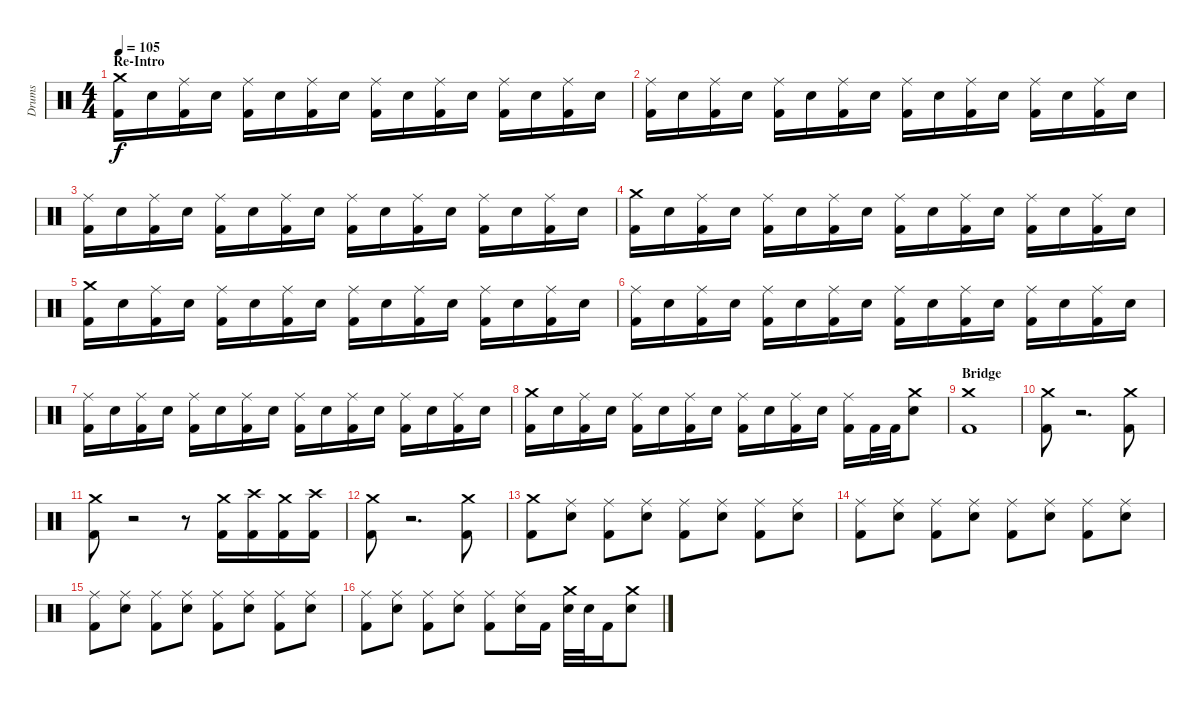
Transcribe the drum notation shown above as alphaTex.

\track ("Drums" "Drums") {instrument percussion}
\staff {score}
\articulation defaults
\ts (4 4)
\section ("" "Re-Intro")
\tempo 105
\clef neutral
\ks c
("Crash medium (hit)" "Kick (hit) 2").16{dy f} "Electric Snare (hit)".16 ("Ride (middle)" "Kick (hit) 2").16 "Electric Snare (hit)".16 ("Ride (middle)" "Kick (hit) 2").16 "Electric Snare (hit)".16 ("Ride (middle)" "Kick (hit) 2").16 "Electric Snare (hit)".16 ("Ride (middle)" "Kick (hit) 2").16 "Electric Snare (hit)".16 ("Ride (middle)" "Kick (hit) 2").16 "Electric Snare (hit)".16 ("Ride (middle)" "Kick (hit) 2").16 "Electric Snare (hit)".16 ("Ride (middle)" "Kick (hit) 2").16 "Electric Snare (hit)".16 |
("Ride (middle)" "Kick (hit) 2").16 "Electric Snare (hit)".16 ("Ride (middle)" "Kick (hit) 2").16 "Electric Snare (hit)".16 ("Ride (middle)" "Kick (hit) 2").16 "Electric Snare (hit)".16 ("Ride (middle)" "Kick (hit) 2").16 "Electric Snare (hit)".16 ("Ride (middle)" "Kick (hit) 2").16 "Electric Snare (hit)".16 ("Ride (middle)" "Kick (hit) 2").16 "Electric Snare (hit)".16 ("Ride (middle)" "Kick (hit) 2").16 "Electric Snare (hit)".16 ("Ride (middle)" "Kick (hit) 2").16 "Electric Snare (hit)".16 |
("Ride (middle)" "Kick (hit) 2").16 "Electric Snare (hit)".16 ("Ride (middle)" "Kick (hit) 2").16 "Electric Snare (hit)".16 ("Ride (middle)" "Kick (hit) 2").16 "Electric Snare (hit)".16 ("Ride (middle)" "Kick (hit) 2").16 "Electric Snare (hit)".16 ("Ride (middle)" "Kick (hit) 2").16 "Electric Snare (hit)".16 ("Ride (middle)" "Kick (hit) 2").16 "Electric Snare (hit)".16 ("Ride (middle)" "Kick (hit) 2").16 "Electric Snare (hit)".16 ("Ride (middle)" "Kick (hit) 2").16 "Electric Snare (hit)".16 |
("Crash medium (hit)" "Kick (hit) 2").16 "Electric Snare (hit)".16 ("Ride (middle)" "Kick (hit) 2").16 "Electric Snare (hit)".16 ("Ride (middle)" "Kick (hit) 2").16 "Electric Snare (hit)".16 ("Ride (middle)" "Kick (hit) 2").16 "Electric Snare (hit)".16 ("Ride (middle)" "Kick (hit) 2").16 "Electric Snare (hit)".16 ("Ride (middle)" "Kick (hit) 2").16 "Electric Snare (hit)".16 ("Ride (middle)" "Kick (hit) 2").16 "Electric Snare (hit)".16 ("Ride (middle)" "Kick (hit) 2").16 "Electric Snare (hit)".16 |
("Crash medium (hit)" "Kick (hit) 2").16 "Electric Snare (hit)".16 ("Ride (middle)" "Kick (hit) 2").16 "Electric Snare (hit)".16 ("Ride (middle)" "Kick (hit) 2").16 "Electric Snare (hit)".16 ("Ride (middle)" "Kick (hit) 2").16 "Electric Snare (hit)".16 ("Ride (middle)" "Kick (hit) 2").16 "Electric Snare (hit)".16 ("Ride (middle)" "Kick (hit) 2").16 "Electric Snare (hit)".16 ("Ride (middle)" "Kick (hit) 2").16 "Electric Snare (hit)".16 ("Ride (middle)" "Kick (hit) 2").16 "Electric Snare (hit)".16 |
("Ride (middle)" "Kick (hit) 2").16 "Electric Snare (hit)".16 ("Ride (middle)" "Kick (hit) 2").16 "Electric Snare (hit)".16 ("Ride (middle)" "Kick (hit) 2").16 "Electric Snare (hit)".16 ("Ride (middle)" "Kick (hit) 2").16 "Electric Snare (hit)".16 ("Ride (middle)" "Kick (hit) 2").16 "Electric Snare (hit)".16 ("Ride (middle)" "Kick (hit) 2").16 "Electric Snare (hit)".16 ("Ride (middle)" "Kick (hit) 2").16 "Electric Snare (hit)".16 ("Ride (middle)" "Kick (hit) 2").16 "Electric Snare (hit)".16 |
("Ride (middle)" "Kick (hit) 2").16 "Electric Snare (hit)".16 ("Ride (middle)" "Kick (hit) 2").16 "Electric Snare (hit)".16 ("Ride (middle)" "Kick (hit) 2").16 "Electric Snare (hit)".16 ("Ride (middle)" "Kick (hit) 2").16 "Electric Snare (hit)".16 ("Ride (middle)" "Kick (hit) 2").16 "Electric Snare (hit)".16 ("Ride (middle)" "Kick (hit) 2").16 "Electric Snare (hit)".16 ("Ride (middle)" "Kick (hit) 2").16 "Electric Snare (hit)".16 ("Ride (middle)" "Kick (hit) 2").16 "Electric Snare (hit)".16 |
("Crash medium (hit)" "Kick (hit) 2").16 "Electric Snare (hit)".16 ("Ride (middle)" "Kick (hit) 2").16 "Electric Snare (hit)".16 ("Ride (middle)" "Kick (hit) 2").16 "Electric Snare (hit)".16 ("Ride (middle)" "Kick (hit) 2").16 "Electric Snare (hit)".16 ("Ride (middle)" "Kick (hit) 2").16 "Electric Snare (hit)".16 ("Ride (middle)" "Kick (hit) 2").16 "Electric Snare (hit)".16 ("Ride (middle)" "Kick (hit) 2").16 "Kick (hit) 2".32 "Kick (hit) 2".32 ("Crash medium (hit)" "Electric Snare (hit)").8 |
\section ("" "Bridge")
("Crash medium (hit)" "Kick (hit) 2").1 |
("Crash medium (hit)" "Kick (hit) 2").8 r.2{d} ("Crash medium (hit)" "Kick (hit) 2").8 |
("Crash medium (hit)" "Kick (hit) 2").8 r.2 r.8 ("Crash medium (hit)" "Kick (hit) 2").16 ("Crash high (hit)" "Kick (hit) 2").16 ("Crash medium (hit)" "Kick (hit) 2").16 ("Crash high (hit)" "Kick (hit) 2").16 |
("Crash medium (hit)" "Kick (hit) 2").8 r.2{d} ("Crash medium (hit)" "Kick (hit) 2").8 |
("Crash medium (hit)" "Kick (hit) 2").8 ("Ride (middle)" "Electric Snare (hit)").8 ("Ride (middle)" "Kick (hit) 2").8 ("Ride (middle)" "Electric Snare (hit)").8 ("Ride (middle)" "Kick (hit) 2").8 ("Ride (middle)" "Electric Snare (hit)").8 ("Ride (middle)" "Kick (hit) 2").8 ("Ride (middle)" "Electric Snare (hit)").8 |
("Ride (middle)" "Kick (hit) 2").8 ("Ride (middle)" "Electric Snare (hit)").8 ("Ride (middle)" "Kick (hit) 2").8 ("Ride (middle)" "Electric Snare (hit)").8 ("Ride (middle)" "Kick (hit) 2").8 ("Ride (middle)" "Electric Snare (hit)").8 ("Ride (middle)" "Kick (hit) 2").8 ("Ride (middle)" "Electric Snare (hit)").8 |
("Ride (middle)" "Kick (hit) 2").8 ("Ride (middle)" "Electric Snare (hit)").8 ("Ride (middle)" "Kick (hit) 2").8 ("Ride (middle)" "Electric Snare (hit)").8 ("Ride (middle)" "Kick (hit) 2").8 ("Ride (middle)" "Electric Snare (hit)").8 ("Ride (middle)" "Kick (hit) 2").8 ("Ride (middle)" "Electric Snare (hit)").8 |
("Ride (middle)" "Kick (hit) 2").8 ("Ride (middle)" "Electric Snare (hit)").8 ("Ride (middle)" "Kick (hit) 2").8 ("Ride (middle)" "Electric Snare (hit)").8 ("Ride (middle)" "Kick (hit) 2").8 ("Ride (middle)" "Electric Snare (hit)").16 "Kick (hit) 2".16 ("Crash medium (hit)" "Electric Snare (hit)").32 "Electric Snare (hit)".32 "Kick (hit) 2".16 ("Crash medium (hit)" "Electric Snare (hit)").8
